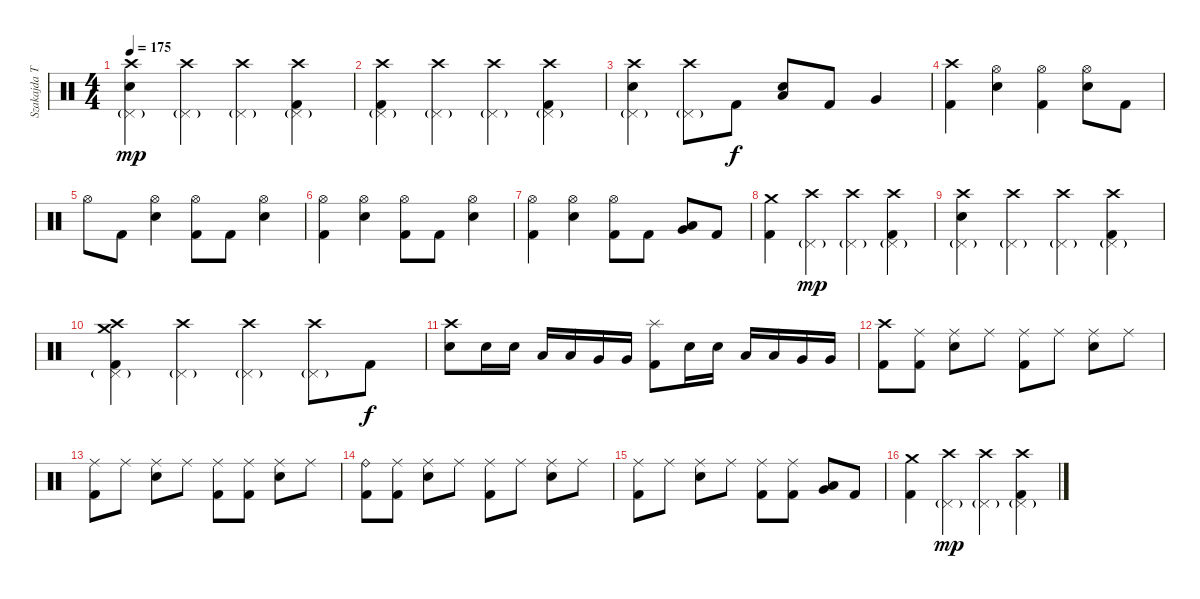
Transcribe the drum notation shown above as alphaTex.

\track ("Szakajda Tibi" "Szakajda T") {instrument percussion}
\staff {score}
\articulation defaults
\ts (4 4)
\tempo 175
\clef neutral
\ks c
("Crash high (hit)" "Pedal Hi-Hat (hit)"{g} "Snare (hit) 2").4{dy mp} ("Crash high (hit)" "Pedal Hi-Hat (hit)"{g}).4 ("Crash high (hit)" "Pedal Hi-Hat (hit)"{g}).4 ("Crash high (hit)" "Pedal Hi-Hat (hit)"{g} "Kick (hit) 2").4 |
("Crash high (hit)" "Pedal Hi-Hat (hit)"{g} "Kick (hit) 2").4 ("Crash high (hit)" "Pedal Hi-Hat (hit)"{g}).4 ("Crash high (hit)" "Pedal Hi-Hat (hit)"{g}).4 ("Crash high (hit)" "Pedal Hi-Hat (hit)"{g} "Kick (hit) 2").4 |
("Crash high (hit)" "Pedal Hi-Hat (hit)"{g} "Snare (hit) 2").4 ("Crash high (hit)" "Pedal Hi-Hat (hit)"{g}).8 "Kick (hit) 2".8{dy f} ("Low Floor Tom (hit)" "Snare (hit) 2").8 "Kick (hit) 2".8 "Very Low Tom (hit)".4 |
("Crash high (hit)" "Kick (hit) 2").4 ("Hi-Hat (open)" "Snare (hit) 2").4 ("Hi-Hat (open)" "Kick (hit) 2").4 ("Hi-Hat (open)" "Snare (hit) 2").8 "Kick (hit) 2".8 |
"Hi-Hat (open)".8 "Kick (hit) 2".8 ("Hi-Hat (open)" "Snare (hit) 2").4 ("Hi-Hat (open)" "Kick (hit) 2").8 "Kick (hit) 2".8 ("Hi-Hat (open)" "Snare (hit) 2").4 |
("Hi-Hat (open)" "Kick (hit) 2").4 ("Hi-Hat (open)" "Snare (hit) 2").4 ("Hi-Hat (open)" "Kick (hit) 2").8 "Kick (hit) 2".8 ("Hi-Hat (open)" "Snare (hit) 2").4 |
("Hi-Hat (open)" "Kick (hit) 2").4 ("Hi-Hat (open)" "Snare (hit) 2").4 ("Hi-Hat (open)" "Kick (hit) 2").8 "Kick (hit) 2".8 ("Low Floor Tom (hit)" "Very Low Tom (hit)").8 "Kick (hit) 2".8 |
("Crash medium (hit)" "Kick (hit) 2").4 ("Crash high (hit)" "Pedal Hi-Hat (hit)"{g}).4{dy mp} ("Crash high (hit)" "Pedal Hi-Hat (hit)"{g}).4 ("Crash high (hit)" "Pedal Hi-Hat (hit)"{g} "Kick (hit) 2").4 |
("Crash high (hit)" "Pedal Hi-Hat (hit)"{g} "Snare (hit) 2").4 ("Crash high (hit)" "Pedal Hi-Hat (hit)"{g}).4 ("Crash high (hit)" "Pedal Hi-Hat (hit)"{g}).4 ("Crash high (hit)" "Pedal Hi-Hat (hit)"{g} "Kick (hit) 2").4 |
("Crash high (hit)" "Pedal Hi-Hat (hit)"{g} "Crash medium (hit)" "Kick (hit) 2").4 ("Crash high (hit)" "Pedal Hi-Hat (hit)"{g}).4 ("Crash high (hit)" "Pedal Hi-Hat (hit)"{g}).4 ("Crash high (hit)" "Pedal Hi-Hat (hit)"{g}).8 "Kick (hit) 2".8{dy f} |
("Crash high (hit)" "Snare (hit) 2").8 "Snare (hit) 2".16 "Snare (hit) 2".16 "Low Tom (hit)".16 "Low Tom (hit)".16 "Very Low Tom (hit)".16 "Very Low Tom (hit)".16 ("Splash (hit)" "Kick (hit) 2").8 "Snare (hit) 2".16 "Snare (hit) 2".16 "Low Tom (hit)".16 "Low Tom (hit)".16 "Very Low Tom (hit)".16 "Very Low Tom (hit)".16 |
("Crash high (hit)" "Kick (hit) 2").8 ("Ride (middle)" "Kick (hit) 2").8 ("Ride (middle)" "Snare (hit) 2").8 "Ride (middle)".8 ("Ride (middle)" "Kick (hit) 2").8 "Ride (middle)".8 ("Ride (middle)" "Snare (hit) 2").8 "Ride (middle)".8 |
("Ride (middle)" "Kick (hit) 2").8 "Ride (middle)".8 ("Ride (middle)" "Snare (hit) 2").8 "Ride (middle)".8 ("Ride (middle)" "Kick (hit) 2").8 ("Ride (middle)" "Kick (hit) 2").8 ("Ride (middle)" "Snare (hit) 2").8 "Ride (middle)".8 |
("Ride (bell)" "Kick (hit) 2").8 ("Ride (middle)" "Kick (hit) 2").8 ("Ride (middle)" "Snare (hit) 2").8 "Ride (middle)".8 ("Ride (middle)" "Kick (hit) 2").8 "Ride (middle)".8 ("Ride (middle)" "Snare (hit) 2").8 "Ride (middle)".8 |
("Ride (middle)" "Kick (hit) 2").8 "Ride (middle)".8 ("Ride (middle)" "Snare (hit) 2").8 "Ride (middle)".8 ("Ride (middle)" "Kick (hit) 2").8 ("Ride (middle)" "Kick (hit) 2").8 ("Very Low Tom (hit)" "Low Tom (hit)").8 "Kick (hit) 2".8 |
("Crash medium (hit)" "Kick (hit) 2").4 ("Crash high (hit)" "Pedal Hi-Hat (hit)"{g}).4{dy mp} ("Crash high (hit)" "Pedal Hi-Hat (hit)"{g}).4 ("Crash high (hit)" "Pedal Hi-Hat (hit)"{g} "Kick (hit) 2").4
